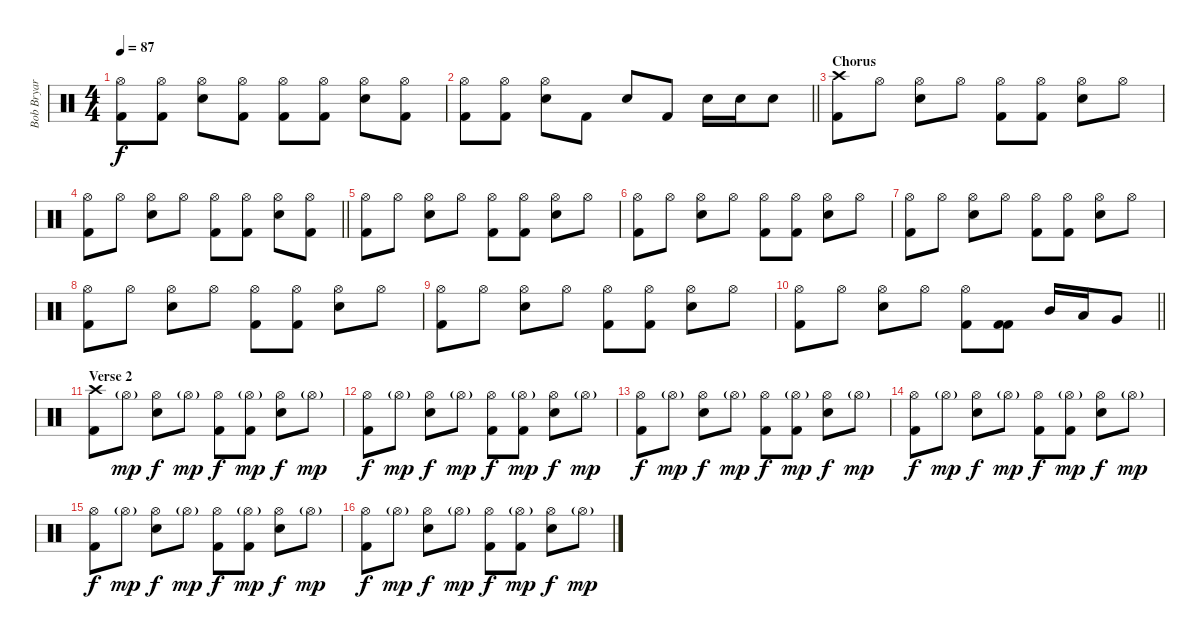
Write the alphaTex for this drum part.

\track ("Bob Bryar" "Bob Bryar") {instrument percussion}
\staff {score}
\articulation defaults
\ts (4 4)
\tempo 87
\clef neutral
\ks c
("Hi-Hat (open)" "Kick (hit) 2").8{dy f} ("Hi-Hat (open)" "Kick (hit) 2").8 ("Hi-Hat (open)" "Electric Snare (hit)").8 ("Hi-Hat (open)" "Kick (hit) 2").8 ("Hi-Hat (open)" "Kick (hit) 2").8 ("Hi-Hat (open)" "Kick (hit) 2").8 ("Hi-Hat (open)" "Electric Snare (hit)").8 ("Hi-Hat (open)" "Kick (hit) 2").8 |
\barLineRight lightlight
("Hi-Hat (open)" "Kick (hit) 2").8 ("Hi-Hat (open)" "Kick (hit) 2").8 ("Hi-Hat (open)" "Electric Snare (hit)").8 "Kick (hit) 2".8 "Electric Snare (hit)".8 "Kick (hit) 2".8 "Electric Snare (hit)".16 "Electric Snare (hit)".16 "Electric Snare (hit)".8 |
\section ("" "Chorus")
("Crash high (hit)" "Kick (hit) 2").8 "Hi-Hat (open)".8 ("Hi-Hat (open)" "Electric Snare (hit)").8 "Hi-Hat (open)".8 ("Hi-Hat (open)" "Kick (hit) 2").8 ("Hi-Hat (open)" "Kick (hit) 2").8 ("Hi-Hat (open)" "Electric Snare (hit)").8 "Hi-Hat (open)".8 |
\barLineRight lightlight
("Hi-Hat (open)" "Kick (hit) 2").8 "Hi-Hat (open)".8 ("Hi-Hat (open)" "Electric Snare (hit)").8 "Hi-Hat (open)".8 ("Hi-Hat (open)" "Kick (hit) 2").8 ("Hi-Hat (open)" "Kick (hit) 2").8 ("Hi-Hat (open)" "Electric Snare (hit)").8 ("Hi-Hat (open)" "Kick (hit) 2").8 |
("Hi-Hat (open)" "Kick (hit) 2").8 "Hi-Hat (open)".8 ("Hi-Hat (open)" "Electric Snare (hit)").8 "Hi-Hat (open)".8 ("Hi-Hat (open)" "Kick (hit) 2").8 ("Hi-Hat (open)" "Kick (hit) 2").8 ("Hi-Hat (open)" "Electric Snare (hit)").8 "Hi-Hat (open)".8 |
("Hi-Hat (open)" "Kick (hit) 2").8 "Hi-Hat (open)".8 ("Hi-Hat (open)" "Electric Snare (hit)").8 "Hi-Hat (open)".8 ("Hi-Hat (open)" "Kick (hit) 2").8 ("Hi-Hat (open)" "Kick (hit) 2").8 ("Hi-Hat (open)" "Electric Snare (hit)").8 "Hi-Hat (open)".8 |
("Hi-Hat (open)" "Kick (hit) 2").8 "Hi-Hat (open)".8 ("Hi-Hat (open)" "Electric Snare (hit)").8 "Hi-Hat (open)".8 ("Hi-Hat (open)" "Kick (hit) 2").8 ("Hi-Hat (open)" "Kick (hit) 2").8 ("Hi-Hat (open)" "Electric Snare (hit)").8 "Hi-Hat (open)".8 |
("Hi-Hat (open)" "Kick (hit) 2").8 "Hi-Hat (open)".8 ("Hi-Hat (open)" "Electric Snare (hit)").8 "Hi-Hat (open)".8 ("Hi-Hat (open)" "Kick (hit) 2").8 ("Hi-Hat (open)" "Kick (hit) 2").8 ("Hi-Hat (open)" "Electric Snare (hit)").8 "Hi-Hat (open)".8 |
("Hi-Hat (open)" "Kick (hit) 2").8 "Hi-Hat (open)".8 ("Hi-Hat (open)" "Electric Snare (hit)").8 "Hi-Hat (open)".8 ("Hi-Hat (open)" "Kick (hit) 2").8 ("Hi-Hat (open)" "Kick (hit) 2").8 ("Hi-Hat (open)" "Electric Snare (hit)").8 "Hi-Hat (open)".8 |
\barLineRight lightlight
("Hi-Hat (open)" "Kick (hit) 2").8 "Hi-Hat (open)".8 ("Hi-Hat (open)" "Electric Snare (hit)").8 "Hi-Hat (open)".8 ("Hi-Hat (open)" "Kick (hit) 2").8 ("Kick (hit) 2" "Kick (hit) 2").8 "Mid Tom (hit)".16 "Low Tom (hit)".16 "Very Low Tom (hit)".8 |
\section ("" "Verse 2")
("Crash high (hit)" "Kick (hit) 2").8 "Hi-Hat (open)"{g}.8{dy mp} ("Hi-Hat (open)" "Electric Snare (hit)").8{dy f} "Hi-Hat (open)"{g}.8{dy mp} ("Hi-Hat (open)" "Kick (hit) 2").8{dy f} ("Hi-Hat (open)"{g} "Kick (hit) 2").8{dy mp} ("Hi-Hat (open)" "Electric Snare (hit)").8{dy f} "Hi-Hat (open)"{g}.8{dy mp} |
("Hi-Hat (open)" "Kick (hit) 2").8{dy f} "Hi-Hat (open)"{g}.8{dy mp} ("Hi-Hat (open)" "Electric Snare (hit)").8{dy f} "Hi-Hat (open)"{g}.8{dy mp} ("Hi-Hat (open)" "Kick (hit) 2").8{dy f} ("Hi-Hat (open)"{g} "Kick (hit) 2").8{dy mp} ("Hi-Hat (open)" "Electric Snare (hit)").8{dy f} "Hi-Hat (open)"{g}.8{dy mp} |
("Hi-Hat (open)" "Kick (hit) 2").8{dy f} "Hi-Hat (open)"{g}.8{dy mp} ("Hi-Hat (open)" "Electric Snare (hit)").8{dy f} "Hi-Hat (open)"{g}.8{dy mp} ("Hi-Hat (open)" "Kick (hit) 2").8{dy f} ("Hi-Hat (open)"{g} "Kick (hit) 2").8{dy mp} ("Hi-Hat (open)" "Electric Snare (hit)").8{dy f} "Hi-Hat (open)"{g}.8{dy mp} |
("Hi-Hat (open)" "Kick (hit) 2").8{dy f} "Hi-Hat (open)"{g}.8{dy mp} ("Hi-Hat (open)" "Electric Snare (hit)").8{dy f} "Hi-Hat (open)"{g}.8{dy mp} ("Hi-Hat (open)" "Kick (hit) 2").8{dy f} ("Hi-Hat (open)"{g} "Kick (hit) 2").8{dy mp} ("Hi-Hat (open)" "Electric Snare (hit)").8{dy f} "Hi-Hat (open)"{g}.8{dy mp} |
("Hi-Hat (open)" "Kick (hit) 2").8{dy f} "Hi-Hat (open)"{g}.8{dy mp} ("Hi-Hat (open)" "Electric Snare (hit)").8{dy f} "Hi-Hat (open)"{g}.8{dy mp} ("Hi-Hat (open)" "Kick (hit) 2").8{dy f} ("Hi-Hat (open)"{g} "Kick (hit) 2").8{dy mp} ("Hi-Hat (open)" "Electric Snare (hit)").8{dy f} "Hi-Hat (open)"{g}.8{dy mp} |
("Hi-Hat (open)" "Kick (hit) 2").8{dy f} "Hi-Hat (open)"{g}.8{dy mp} ("Hi-Hat (open)" "Electric Snare (hit)").8{dy f} "Hi-Hat (open)"{g}.8{dy mp} ("Hi-Hat (open)" "Kick (hit) 2").8{dy f} ("Hi-Hat (open)"{g} "Kick (hit) 2").8{dy mp} ("Hi-Hat (open)" "Electric Snare (hit)").8{dy f} "Hi-Hat (open)"{g}.8{dy mp}
